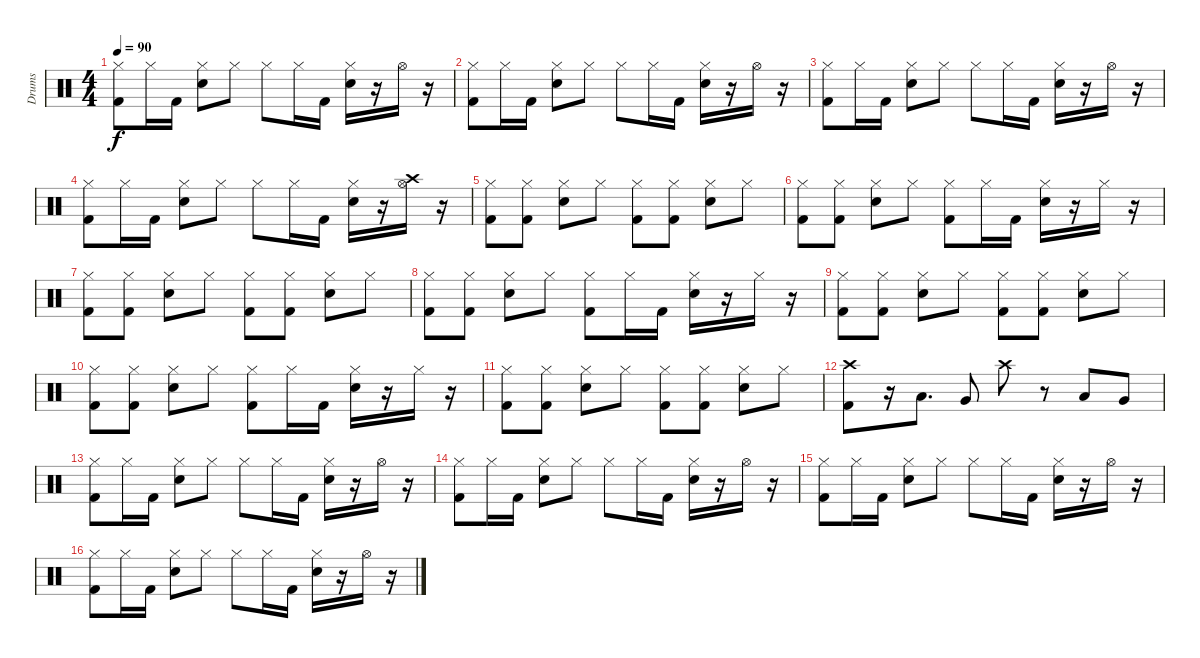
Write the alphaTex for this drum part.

\track ("Drums" "Drums") {instrument percussion}
\staff {score}
\articulation defaults
\ts (4 4)
\tempo 90
\clef neutral
\ks c
("Hi-Hat (closed)" "Kick (hit) 2").8{dy f} "Hi-Hat (closed)".16 "Kick (hit) 2".16 ("Hi-Hat (closed)" "Electric Snare (hit)").8 "Hi-Hat (closed)".8 "Hi-Hat (closed)".8 "Hi-Hat (closed)".16 "Kick (hit) 2".16 ("Hi-Hat (closed)" "Electric Snare (hit)").16 r.16 "Hi-Hat (open)".16 r.16 |
("Hi-Hat (closed)" "Kick (hit) 2").8 "Hi-Hat (closed)".16 "Kick (hit) 2".16 ("Hi-Hat (closed)" "Electric Snare (hit)").8 "Hi-Hat (closed)".8 "Hi-Hat (closed)".8 "Hi-Hat (closed)".16 "Kick (hit) 2".16 ("Hi-Hat (closed)" "Electric Snare (hit)").16 r.16 "Hi-Hat (open)".16 r.16 |
("Hi-Hat (closed)" "Kick (hit) 2").8 "Hi-Hat (closed)".16 "Kick (hit) 2".16 ("Hi-Hat (closed)" "Electric Snare (hit)").8 "Hi-Hat (closed)".8 "Hi-Hat (closed)".8 "Hi-Hat (closed)".16 "Kick (hit) 2".16 ("Hi-Hat (closed)" "Electric Snare (hit)").16 r.16 "Hi-Hat (open)".16 r.16 |
("Hi-Hat (closed)" "Kick (hit) 2").8 "Hi-Hat (closed)".16 "Kick (hit) 2".16 ("Hi-Hat (closed)" "Electric Snare (hit)").8 "Hi-Hat (closed)".8 "Hi-Hat (closed)".8 "Hi-Hat (closed)".16 "Kick (hit) 2".16 ("Hi-Hat (closed)" "Electric Snare (hit)").16 r.16 ("Crash high (hit)" "Hi-Hat (open)").16 r.16 |
("Hi-Hat (closed)" "Kick (hit) 2").8 ("Hi-Hat (closed)" "Kick (hit) 2").8 ("Hi-Hat (closed)" "Electric Snare (hit)").8 "Hi-Hat (closed)".8 ("Hi-Hat (closed)" "Kick (hit) 2").8 ("Hi-Hat (closed)" "Kick (hit) 2").8 ("Hi-Hat (closed)" "Electric Snare (hit)").8 "Hi-Hat (closed)".8 |
("Hi-Hat (closed)" "Kick (hit) 2").8 ("Hi-Hat (closed)" "Kick (hit) 2").8 ("Hi-Hat (closed)" "Electric Snare (hit)").8 "Hi-Hat (closed)".8 ("Hi-Hat (closed)" "Kick (hit) 2").8 "Hi-Hat (closed)".16 "Kick (hit) 2".16 ("Hi-Hat (closed)" "Electric Snare (hit)").16 r.16 "Hi-Hat (closed)".16 r.16 |
("Hi-Hat (closed)" "Kick (hit) 2").8 ("Hi-Hat (closed)" "Kick (hit) 2").8 ("Hi-Hat (closed)" "Electric Snare (hit)").8 "Hi-Hat (closed)".8 ("Hi-Hat (closed)" "Kick (hit) 2").8 ("Hi-Hat (closed)" "Kick (hit) 2").8 ("Hi-Hat (closed)" "Electric Snare (hit)").8 "Hi-Hat (closed)".8 |
("Hi-Hat (closed)" "Kick (hit) 2").8 ("Hi-Hat (closed)" "Kick (hit) 2").8 ("Hi-Hat (closed)" "Electric Snare (hit)").8 "Hi-Hat (closed)".8 ("Hi-Hat (closed)" "Kick (hit) 2").8 "Hi-Hat (closed)".16 "Kick (hit) 2".16 ("Hi-Hat (closed)" "Electric Snare (hit)").16 r.16 "Hi-Hat (closed)".16 r.16 |
("Hi-Hat (closed)" "Kick (hit) 2").8 ("Hi-Hat (closed)" "Kick (hit) 2").8 ("Hi-Hat (closed)" "Electric Snare (hit)").8 "Hi-Hat (closed)".8 ("Hi-Hat (closed)" "Kick (hit) 2").8 ("Hi-Hat (closed)" "Kick (hit) 2").8 ("Hi-Hat (closed)" "Electric Snare (hit)").8 "Hi-Hat (closed)".8 |
("Hi-Hat (closed)" "Kick (hit) 2").8 ("Hi-Hat (closed)" "Kick (hit) 2").8 ("Hi-Hat (closed)" "Electric Snare (hit)").8 "Hi-Hat (closed)".8 ("Hi-Hat (closed)" "Kick (hit) 2").8 "Hi-Hat (closed)".16 "Kick (hit) 2".16 ("Hi-Hat (closed)" "Electric Snare (hit)").16 r.16 "Hi-Hat (closed)".16 r.16 |
("Hi-Hat (closed)" "Kick (hit) 2").8 ("Hi-Hat (closed)" "Kick (hit) 2").8 ("Hi-Hat (closed)" "Electric Snare (hit)").8 "Hi-Hat (closed)".8 ("Hi-Hat (closed)" "Kick (hit) 2").8 ("Hi-Hat (closed)" "Kick (hit) 2").8 ("Hi-Hat (closed)" "Electric Snare (hit)").8 "Hi-Hat (closed)".8 |
("Crash high (hit)" "Kick (hit) 2").8 r.16 "Low Tom (hit)".8{d} "Very Low Tom (hit)".8 "Crash high (hit)".8 r.8 "Low Tom (hit)".8 "Very Low Tom (hit)".8 |
("Hi-Hat (closed)" "Kick (hit) 2").8 "Hi-Hat (closed)".16 "Kick (hit) 2".16 ("Hi-Hat (closed)" "Electric Snare (hit)").8 "Hi-Hat (closed)".8 "Hi-Hat (closed)".8 "Hi-Hat (closed)".16 "Kick (hit) 2".16 ("Hi-Hat (closed)" "Electric Snare (hit)").16 r.16 "Hi-Hat (open)".16 r.16 |
("Hi-Hat (closed)" "Kick (hit) 2").8 "Hi-Hat (closed)".16 "Kick (hit) 2".16 ("Hi-Hat (closed)" "Electric Snare (hit)").8 "Hi-Hat (closed)".8 "Hi-Hat (closed)".8 "Hi-Hat (closed)".16 "Kick (hit) 2".16 ("Hi-Hat (closed)" "Electric Snare (hit)").16 r.16 "Hi-Hat (open)".16 r.16 |
("Hi-Hat (closed)" "Kick (hit) 2").8 "Hi-Hat (closed)".16 "Kick (hit) 2".16 ("Hi-Hat (closed)" "Electric Snare (hit)").8 "Hi-Hat (closed)".8 "Hi-Hat (closed)".8 "Hi-Hat (closed)".16 "Kick (hit) 2".16 ("Hi-Hat (closed)" "Electric Snare (hit)").16 r.16 "Hi-Hat (open)".16 r.16 |
("Hi-Hat (closed)" "Kick (hit) 2").8 "Hi-Hat (closed)".16 "Kick (hit) 2".16 ("Hi-Hat (closed)" "Electric Snare (hit)").8 "Hi-Hat (closed)".8 "Hi-Hat (closed)".8 "Hi-Hat (closed)".16 "Kick (hit) 2".16 ("Hi-Hat (closed)" "Electric Snare (hit)").16 r.16 "Hi-Hat (open)".16 r.16
